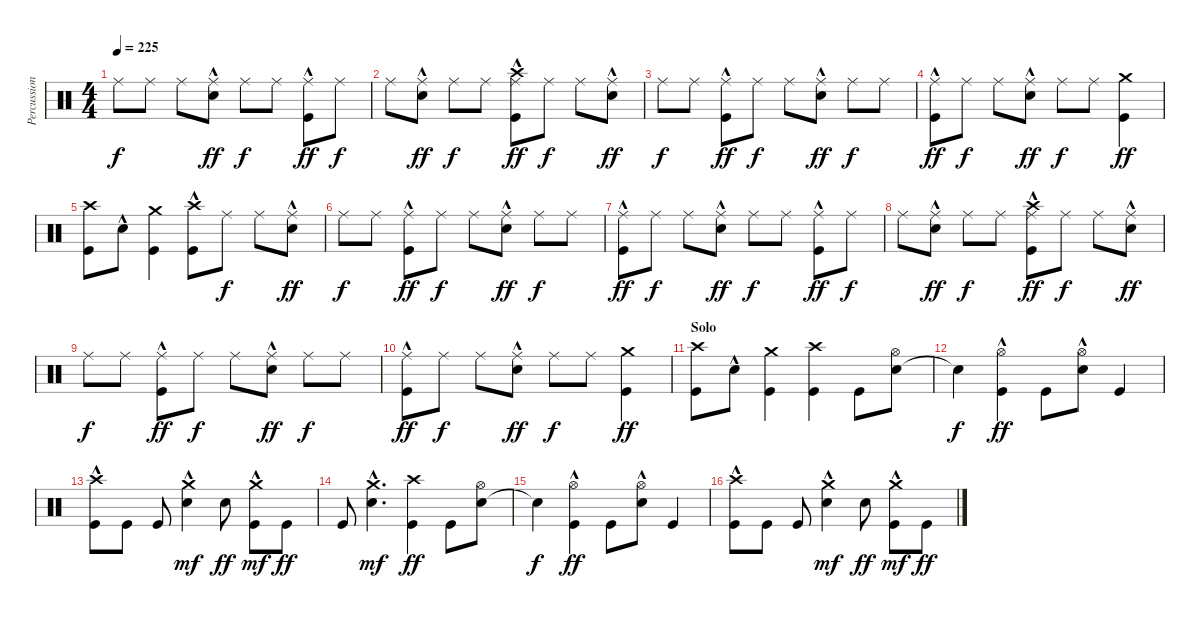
\track ("Percussions" "Percussion") {instrument percussion}
\staff {score}
\articulation defaults
\ts (4 4)
\tempo 225
\clef neutral
\ks c "Ride (middle)".8{dy f} "Ride (middle)".8 "Ride (middle)".8
("Electric Snare (hit)"{hac} "Ride (middle)").8{dy ff} "Ride (middle)".8{dy f} "Ride (middle)".8 ("Kick (hit)"{hac} "Ride (middle)").8{dy ff} "Ride (middle)".8{dy f} |
"Ride (middle)".8 ("Electric Snare (hit)"{hac} "Ride (middle)").8{dy ff} "Ride (middle)".8{dy f} "Ride (middle)".8 ("Kick (hit)"{hac} "Ride (middle)" "Crash high (hit)").8{dy ff} "Ride (middle)".8{dy f} "Ride (middle)".8 ("Electric Snare (hit)"{hac} "Ride (middle)").8{dy ff} |
"Ride (middle)".8{dy f} "Ride (middle)".8 ("Kick (hit)"{hac} "Ride (middle)").8{dy ff} "Ride (middle)".8{dy f} "Ride (middle)".8 ("Electric Snare (hit)"{hac} "Ride (middle)").8{dy ff} "Ride (middle)".8{dy f} "Ride (middle)".8 |
("Kick (hit)"{hac} "Ride (middle)").8{dy ff} "Ride (middle)".8{dy f} "Ride (middle)".8 ("Electric Snare (hit)"{hac} "Ride (middle)").8{dy ff} "Ride (middle)".8{dy f} "Ride (middle)".8 ("Kick (hit)" "Crash medium (hit)").4{dy ff} |
("Kick (hit)" "Crash high (hit)").8 "Electric Snare (hit)"{hac}.8 ("Kick (hit)" "Crash medium (hit)").4 ("Kick (hit)"{hac} "Crash high (hit)").8 "Ride (middle)".8{dy f} "Ride (middle)".8 ("Electric Snare (hit)"{hac} "Ride (middle)").8{dy ff} |
"Ride (middle)".8{dy f} "Ride (middle)".8 ("Kick (hit)"{hac} "Ride (middle)").8{dy ff} "Ride (middle)".8{dy f} "Ride (middle)".8 ("Electric Snare (hit)"{hac} "Ride (middle)").8{dy ff} "Ride (middle)".8{dy f} "Ride (middle)".8 |
("Kick (hit)"{hac} "Ride (middle)").8{dy ff} "Ride (middle)".8{dy f} "Ride (middle)".8 ("Electric Snare (hit)"{hac} "Ride (middle)").8{dy ff} "Ride (middle)".8{dy f} "Ride (middle)".8 ("Kick (hit)"{hac} "Ride (middle)").8{dy ff} "Ride (middle)".8{dy f} |
"Ride (middle)".8 ("Electric Snare (hit)"{hac} "Ride (middle)").8{dy ff} "Ride (middle)".8{dy f} "Ride (middle)".8 ("Kick (hit)"{hac} "Ride (middle)" "Crash high (hit)").8{dy ff} "Ride (middle)".8{dy f} "Ride (middle)".8 ("Electric Snare (hit)"{hac} "Ride (middle)").8{dy ff} |
"Ride (middle)".8{dy f} "Ride (middle)".8 ("Kick (hit)"{hac} "Ride (middle)").8{dy ff} "Ride (middle)".8{dy f} "Ride (middle)".8 ("Electric Snare (hit)"{hac} "Ride (middle)").8{dy ff} "Ride (middle)".8{dy f} "Ride (middle)".8 |
("Kick (hit)"{hac} "Ride (middle)").8{dy ff} "Ride (middle)".8{dy f} "Ride (middle)".8 ("Electric Snare (hit)"{hac} "Ride (middle)").8{dy ff} "Ride (middle)".8{dy f} "Ride (middle)".8 ("Kick (hit)" "Crash medium (hit)").4{dy ff} |
\section ("" "Solo")
("Kick (hit)" "Crash high (hit)").8 "Electric Snare (hit)"{hac}.8 ("Kick (hit)" "Crash medium (hit)").4 ("Kick (hit)" "Crash high (hit)").4 "Kick (hit)".8 ("Electric Snare (hit)" "Hi-Hat (open)").8 |
"Snare (hit)"{t}.4{dy f} ("Kick (hit)" "Hi-Hat (open)"{hac}).4{dy ff} "Kick (hit)".8 ("Electric Snare (hit)"{hac} "Hi-Hat (open)").8 "Kick (hit)".4 |
("Kick (hit)" "Crash high (hit)"{hac}).8 "Kick (hit)".8 "Kick (hit)".8 ("Electric Snare (hit)" "Crash medium (hit)"{hac}).4{dy mf} "Electric Snare (hit)".8{dy ff} ("Kick (hit)" "Crash medium (hit)"{hac}).8{dy mf} "Kick (hit)".8{dy ff} |
"Kick (hit)".8 ("Electric Snare (hit)"{hac} "Crash medium (hit)"{hac}).4{d dy mf} ("Kick (hit)" "Crash high (hit)").4{dy ff} "Kick (hit)".8 ("Electric Snare (hit)" "Hi-Hat (open)").8 |
"Snare (hit)"{t}.4{dy f} ("Kick (hit)" "Hi-Hat (open)"{hac}).4{dy ff} "Kick (hit)".8 ("Electric Snare (hit)"{hac} "Hi-Hat (open)").8 "Kick (hit)".4 |
("Kick (hit)" "Crash high (hit)"{hac}).8 "Kick (hit)".8 "Kick (hit)".8 ("Electric Snare (hit)" "Crash medium (hit)"{hac}).4{dy mf} "Electric Snare (hit)".8{dy ff} ("Kick (hit)" "Crash medium (hit)"{hac}).8{dy mf} "Kick (hit)".8{dy ff}
